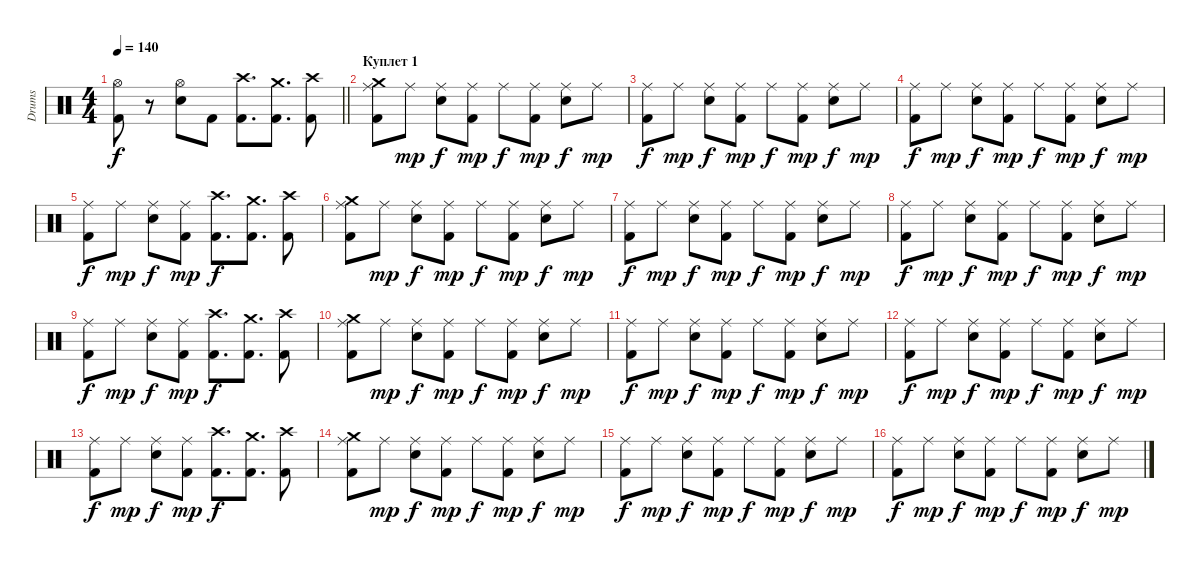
\track ("Drums" "Drums") {instrument percussion}
\staff {score}
\articulation defaults
\ts (4 4)
\tempo 140
\clef neutral
\barLineRight lightlight
\ks c
("Kick (hit) 2" "Hi-Hat (open)").8{dy f} r.8 ("Electric Snare (hit)" "Hi-Hat (open)").8 "Kick (hit) 2".8 ("Crash high (hit)" "Kick (hit) 2").8{d} ("Crash medium (hit)" "Kick (hit) 2").8{d} ("Crash high (hit)" "Kick (hit) 2").8 |
\section ("" "Куплет 1")
("Crash medium (hit)" "Kick (hit) 2" "Ride (middle)").8 "Ride (middle)".8{dy mp} ("Electric Snare (hit)" "Ride (middle)").8{dy f} ("Kick (hit) 2" "Ride (middle)").8{dy mp} "Ride (middle)".8{dy f} ("Kick (hit) 2" "Ride (middle)").8{dy mp} ("Electric Snare (hit)" "Ride (middle)").8{dy f} "Ride (middle)".8{dy mp} |
("Kick (hit) 2" "Ride (middle)").8{dy f} "Ride (middle)".8{dy mp} ("Electric Snare (hit)" "Ride (middle)").8{dy f} ("Kick (hit) 2" "Ride (middle)").8{dy mp} "Ride (middle)".8{dy f} ("Kick (hit) 2" "Ride (middle)").8{dy mp} ("Electric Snare (hit)" "Ride (middle)").8{dy f} "Ride (middle)".8{dy mp} |
("Kick (hit) 2" "Ride (middle)").8{dy f} "Ride (middle)".8{dy mp} ("Electric Snare (hit)" "Ride (middle)").8{dy f} ("Kick (hit) 2" "Ride (middle)").8{dy mp} "Ride (middle)".8{dy f} ("Kick (hit) 2" "Ride (middle)").8{dy mp} ("Electric Snare (hit)" "Ride (middle)").8{dy f} "Ride (middle)".8{dy mp} |
("Kick (hit) 2" "Ride (middle)").8{dy f} "Ride (middle)".8{dy mp} ("Electric Snare (hit)" "Ride (middle)").8{dy f} ("Kick (hit) 2" "Ride (middle)").8{dy mp} ("Crash high (hit)" "Kick (hit) 2").8{d dy f} ("Crash medium (hit)" "Kick (hit) 2").8{d} ("Crash high (hit)" "Kick (hit) 2").8 |
("Crash medium (hit)" "Kick (hit) 2" "Ride (middle)").8 "Ride (middle)".8{dy mp} ("Electric Snare (hit)" "Ride (middle)").8{dy f} ("Kick (hit) 2" "Ride (middle)").8{dy mp} "Ride (middle)".8{dy f} ("Kick (hit) 2" "Ride (middle)").8{dy mp} ("Electric Snare (hit)" "Ride (middle)").8{dy f} "Ride (middle)".8{dy mp} |
("Kick (hit) 2" "Ride (middle)").8{dy f} "Ride (middle)".8{dy mp} ("Electric Snare (hit)" "Ride (middle)").8{dy f} ("Kick (hit) 2" "Ride (middle)").8{dy mp} "Ride (middle)".8{dy f} ("Kick (hit) 2" "Ride (middle)").8{dy mp} ("Electric Snare (hit)" "Ride (middle)").8{dy f} "Ride (middle)".8{dy mp} |
("Kick (hit) 2" "Ride (middle)").8{dy f} "Ride (middle)".8{dy mp} ("Electric Snare (hit)" "Ride (middle)").8{dy f} ("Kick (hit) 2" "Ride (middle)").8{dy mp} "Ride (middle)".8{dy f} ("Kick (hit) 2" "Ride (middle)").8{dy mp} ("Electric Snare (hit)" "Ride (middle)").8{dy f} "Ride (middle)".8{dy mp} |
("Kick (hit) 2" "Ride (middle)").8{dy f} "Ride (middle)".8{dy mp} ("Electric Snare (hit)" "Ride (middle)").8{dy f} ("Kick (hit) 2" "Ride (middle)").8{dy mp} ("Crash high (hit)" "Kick (hit) 2").8{d dy f} ("Crash medium (hit)" "Kick (hit) 2").8{d} ("Crash high (hit)" "Kick (hit) 2").8 |
("Crash medium (hit)" "Kick (hit) 2" "Ride (middle)").8 "Ride (middle)".8{dy mp} ("Electric Snare (hit)" "Ride (middle)").8{dy f} ("Kick (hit) 2" "Ride (middle)").8{dy mp} "Ride (middle)".8{dy f} ("Kick (hit) 2" "Ride (middle)").8{dy mp} ("Electric Snare (hit)" "Ride (middle)").8{dy f} "Ride (middle)".8{dy mp} |
("Kick (hit) 2" "Ride (middle)").8{dy f} "Ride (middle)".8{dy mp} ("Electric Snare (hit)" "Ride (middle)").8{dy f} ("Kick (hit) 2" "Ride (middle)").8{dy mp} "Ride (middle)".8{dy f} ("Kick (hit) 2" "Ride (middle)").8{dy mp} ("Electric Snare (hit)" "Ride (middle)").8{dy f} "Ride (middle)".8{dy mp} |
("Kick (hit) 2" "Ride (middle)").8{dy f} "Ride (middle)".8{dy mp} ("Electric Snare (hit)" "Ride (middle)").8{dy f} ("Kick (hit) 2" "Ride (middle)").8{dy mp} "Ride (middle)".8{dy f} ("Kick (hit) 2" "Ride (middle)").8{dy mp} ("Electric Snare (hit)" "Ride (middle)").8{dy f} "Ride (middle)".8{dy mp} |
("Kick (hit) 2" "Ride (middle)").8{dy f} "Ride (middle)".8{dy mp} ("Electric Snare (hit)" "Ride (middle)").8{dy f} ("Kick (hit) 2" "Ride (middle)").8{dy mp} ("Crash high (hit)" "Kick (hit) 2").8{d dy f} ("Crash medium (hit)" "Kick (hit) 2").8{d} ("Crash high (hit)" "Kick (hit) 2").8 |
("Crash medium (hit)" "Kick (hit) 2" "Ride (middle)").8 "Ride (middle)".8{dy mp} ("Electric Snare (hit)" "Ride (middle)").8{dy f} ("Kick (hit) 2" "Ride (middle)").8{dy mp} "Ride (middle)".8{dy f} ("Kick (hit) 2" "Ride (middle)").8{dy mp} ("Electric Snare (hit)" "Ride (middle)").8{dy f} "Ride (middle)".8{dy mp} |
("Kick (hit) 2" "Ride (middle)").8{dy f} "Ride (middle)".8{dy mp} ("Electric Snare (hit)" "Ride (middle)").8{dy f} ("Kick (hit) 2" "Ride (middle)").8{dy mp} "Ride (middle)".8{dy f} ("Kick (hit) 2" "Ride (middle)").8{dy mp} ("Electric Snare (hit)" "Ride (middle)").8{dy f} "Ride (middle)".8{dy mp} |
("Kick (hit) 2" "Ride (middle)").8{dy f} "Ride (middle)".8{dy mp} ("Electric Snare (hit)" "Ride (middle)").8{dy f} ("Kick (hit) 2" "Ride (middle)").8{dy mp} "Ride (middle)".8{dy f} ("Kick (hit) 2" "Ride (middle)").8{dy mp} ("Electric Snare (hit)" "Ride (middle)").8{dy f} "Ride (middle)".8{dy mp}
